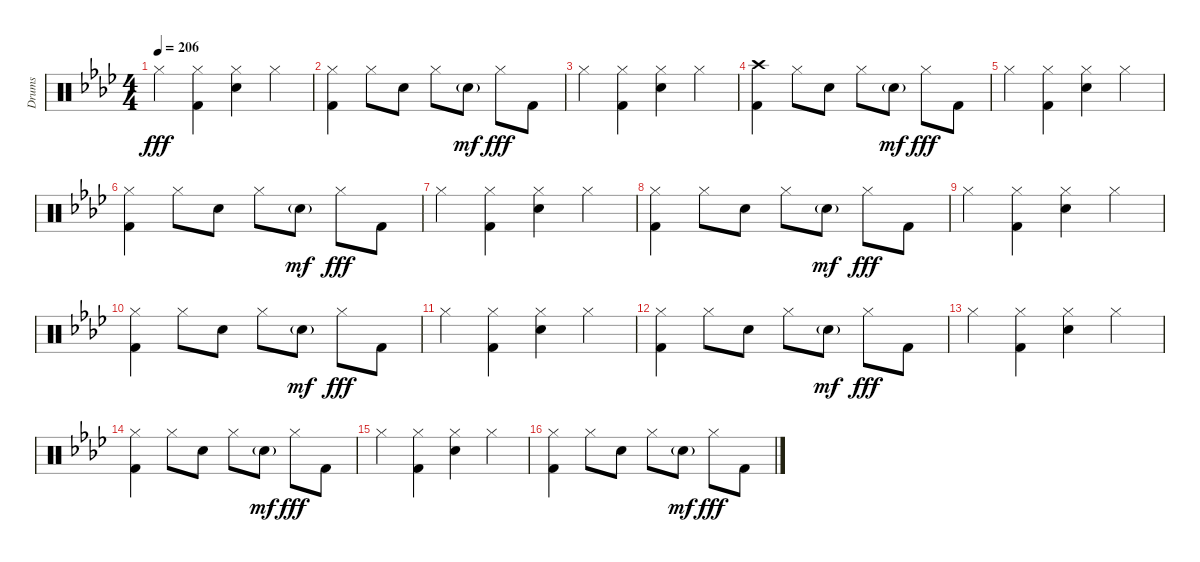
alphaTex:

\track ("Drums" "Drums") {instrument percussion}
\staff {score}
\articulation defaults
\ts (4 4)
\tempo 206
\clef neutral
\ks ab "Hi-Hat (closed)".4{dy fff}
("Hi-Hat (closed)" "Kick (hit) 2").4 ("Hi-Hat (closed)" "Electric Snare (hit)").4 "Hi-Hat (closed)".4 |
("Hi-Hat (closed)" "Kick (hit) 2").4 "Hi-Hat (closed)".8 "Electric Snare (hit)".8 "Hi-Hat (closed)".8 "Electric Snare (hit)"{g}.8{dy mf} "Hi-Hat (closed)".8{dy fff} "Kick (hit) 2".8 |
"Hi-Hat (closed)".4 ("Hi-Hat (closed)" "Kick (hit) 2").4 ("Hi-Hat (closed)" "Electric Snare (hit)").4 "Hi-Hat (closed)".4 |
("Crash high (hit)" "Kick (hit) 2").4 "Hi-Hat (closed)".8 "Electric Snare (hit)".8 "Hi-Hat (closed)".8 "Electric Snare (hit)"{g}.8{dy mf} "Hi-Hat (closed)".8{dy fff} "Kick (hit) 2".8 |
"Hi-Hat (closed)".4 ("Hi-Hat (closed)" "Kick (hit) 2").4 ("Hi-Hat (closed)" "Electric Snare (hit)").4 "Hi-Hat (closed)".4 |
("Hi-Hat (closed)" "Kick (hit) 2").4 "Hi-Hat (closed)".8 "Electric Snare (hit)".8 "Hi-Hat (closed)".8 "Electric Snare (hit)"{g}.8{dy mf} "Hi-Hat (closed)".8{dy fff} "Kick (hit) 2".8 |
"Hi-Hat (closed)".4 ("Hi-Hat (closed)" "Kick (hit) 2").4 ("Hi-Hat (closed)" "Electric Snare (hit)").4 "Hi-Hat (closed)".4 |
("Hi-Hat (closed)" "Kick (hit) 2").4 "Hi-Hat (closed)".8 "Electric Snare (hit)".8 "Hi-Hat (closed)".8 "Electric Snare (hit)"{g}.8{dy mf} "Hi-Hat (closed)".8{dy fff} "Kick (hit) 2".8 |
"Hi-Hat (closed)".4 ("Hi-Hat (closed)" "Kick (hit) 2").4 ("Hi-Hat (closed)" "Electric Snare (hit)").4 "Hi-Hat (closed)".4 |
("Hi-Hat (closed)" "Kick (hit) 2").4 "Hi-Hat (closed)".8 "Electric Snare (hit)".8 "Hi-Hat (closed)".8 "Electric Snare (hit)"{g}.8{dy mf} "Hi-Hat (closed)".8{dy fff} "Kick (hit) 2".8 |
"Hi-Hat (closed)".4 ("Hi-Hat (closed)" "Kick (hit) 2").4 ("Hi-Hat (closed)" "Electric Snare (hit)").4 "Hi-Hat (closed)".4 |
("Hi-Hat (closed)" "Kick (hit) 2").4 "Hi-Hat (closed)".8 "Electric Snare (hit)".8 "Hi-Hat (closed)".8 "Electric Snare (hit)"{g}.8{dy mf} "Hi-Hat (closed)".8{dy fff} "Kick (hit) 2".8 |
"Hi-Hat (closed)".4 ("Hi-Hat (closed)" "Kick (hit) 2").4 ("Hi-Hat (closed)" "Electric Snare (hit)").4 "Hi-Hat (closed)".4 |
("Hi-Hat (closed)" "Kick (hit) 2").4 "Hi-Hat (closed)".8 "Electric Snare (hit)".8 "Hi-Hat (closed)".8 "Electric Snare (hit)"{g}.8{dy mf} "Hi-Hat (closed)".8{dy fff} "Kick (hit) 2".8 |
"Hi-Hat (closed)".4 ("Hi-Hat (closed)" "Kick (hit) 2").4 ("Hi-Hat (closed)" "Electric Snare (hit)").4 "Hi-Hat (closed)".4 |
("Hi-Hat (closed)" "Kick (hit) 2").4 "Hi-Hat (closed)".8 "Electric Snare (hit)".8 "Hi-Hat (closed)".8 "Electric Snare (hit)"{g}.8{dy mf} "Hi-Hat (closed)".8{dy fff} "Kick (hit) 2".8
